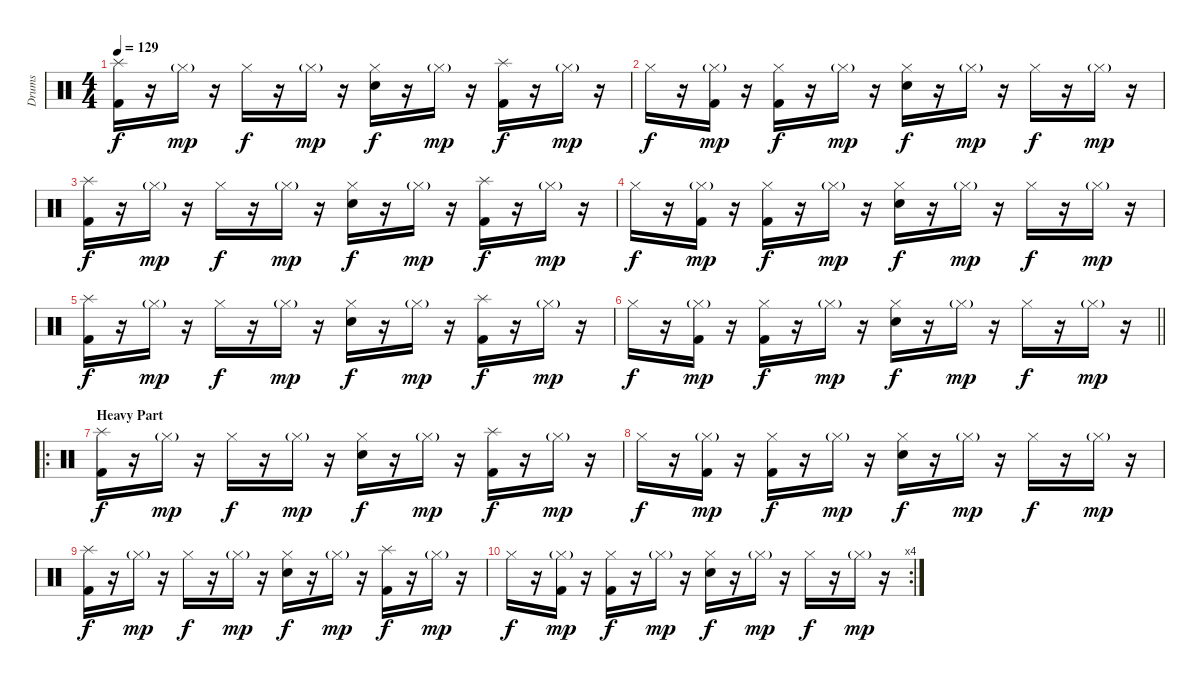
\track ("Drums" "Drums") {instrument percussion}
\staff {score}
\articulation defaults
\ts (4 4)
\tempo 129
\clef neutral
\ks c
("Splash (hit)" "Kick (hit) 2").16{dy f} r.16 "Hi-Hat (closed)"{g}.16{dy mp} r.16 "Hi-Hat (closed)".16{dy f} r.16 "Hi-Hat (closed)"{g}.16{dy mp} r.16 ("Hi-Hat (closed)" "Electric Snare (hit)").16{dy f} r.16 "Hi-Hat (closed)"{g}.16{dy mp} r.16 ("Splash (hit)" "Kick (hit) 2").16{dy f} r.16 "Hi-Hat (closed)"{g}.16{dy mp} r.16 |
"Hi-Hat (closed)".16{dy f} r.16 ("Hi-Hat (closed)"{g} "Kick (hit) 2").16{dy mp} r.16 ("Hi-Hat (closed)" "Kick (hit) 2").16{dy f} r.16 "Hi-Hat (closed)"{g}.16{dy mp} r.16 ("Hi-Hat (closed)" "Electric Snare (hit)").16{dy f} r.16 "Hi-Hat (closed)"{g}.16{dy mp} r.16 "Hi-Hat (closed)".16{dy f} r.16 "Hi-Hat (closed)"{g}.16{dy mp} r.16 |
("Splash (hit)" "Kick (hit) 2").16{dy f} r.16 "Hi-Hat (closed)"{g}.16{dy mp} r.16 "Hi-Hat (closed)".16{dy f} r.16 "Hi-Hat (closed)"{g}.16{dy mp} r.16 ("Hi-Hat (closed)" "Electric Snare (hit)").16{dy f} r.16 "Hi-Hat (closed)"{g}.16{dy mp} r.16 ("Splash (hit)" "Kick (hit) 2").16{dy f} r.16 "Hi-Hat (closed)"{g}.16{dy mp} r.16 |
"Hi-Hat (closed)".16{dy f} r.16 ("Hi-Hat (closed)"{g} "Kick (hit) 2").16{dy mp} r.16 ("Hi-Hat (closed)" "Kick (hit) 2").16{dy f} r.16 "Hi-Hat (closed)"{g}.16{dy mp} r.16 ("Hi-Hat (closed)" "Electric Snare (hit)").16{dy f} r.16 "Hi-Hat (closed)"{g}.16{dy mp} r.16 "Hi-Hat (closed)".16{dy f} r.16 "Hi-Hat (closed)"{g}.16{dy mp} r.16 |
("Splash (hit)" "Kick (hit) 2").16{dy f} r.16 "Hi-Hat (closed)"{g}.16{dy mp} r.16 "Hi-Hat (closed)".16{dy f} r.16 "Hi-Hat (closed)"{g}.16{dy mp} r.16 ("Hi-Hat (closed)" "Electric Snare (hit)").16{dy f} r.16 "Hi-Hat (closed)"{g}.16{dy mp} r.16 ("Splash (hit)" "Kick (hit) 2").16{dy f} r.16 "Hi-Hat (closed)"{g}.16{dy mp} r.16 |
\barLineRight lightlight "Hi-Hat (closed)".16{dy f}
r.16 ("Hi-Hat (closed)"{g} "Kick (hit) 2").16{dy mp} r.16 ("Hi-Hat (closed)" "Kick (hit) 2").16{dy f} r.16 "Hi-Hat (closed)"{g}.16{dy mp} r.16 ("Hi-Hat (closed)" "Electric Snare (hit)").16{dy f} r.16 "Hi-Hat (closed)"{g}.16{dy mp} r.16 "Hi-Hat (closed)".16{dy f} r.16 "Hi-Hat (closed)"{g}.16{dy mp} r.16 |
\ro
\section ("" "Heavy Part")
("Splash (hit)" "Kick (hit) 2").16{dy f} r.16 "Hi-Hat (closed)"{g}.16{dy mp} r.16 "Hi-Hat (closed)".16{dy f} r.16 "Hi-Hat (closed)"{g}.16{dy mp} r.16 ("Hi-Hat (closed)" "Electric Snare (hit)").16{dy f} r.16 "Hi-Hat (closed)"{g}.16{dy mp} r.16 ("Splash (hit)" "Kick (hit) 2").16{dy f} r.16 "Hi-Hat (closed)"{g}.16{dy mp} r.16 |
"Hi-Hat (closed)".16{dy f} r.16 ("Hi-Hat (closed)"{g} "Kick (hit) 2").16{dy mp} r.16 ("Hi-Hat (closed)" "Kick (hit) 2").16{dy f} r.16 "Hi-Hat (closed)"{g}.16{dy mp} r.16 ("Hi-Hat (closed)" "Electric Snare (hit)").16{dy f} r.16 "Hi-Hat (closed)"{g}.16{dy mp} r.16 "Hi-Hat (closed)".16{dy f} r.16 "Hi-Hat (closed)"{g}.16{dy mp} r.16 |
("Splash (hit)" "Kick (hit) 2").16{dy f} r.16 "Hi-Hat (closed)"{g}.16{dy mp} r.16 "Hi-Hat (closed)".16{dy f} r.16 "Hi-Hat (closed)"{g}.16{dy mp} r.16 ("Hi-Hat (closed)" "Electric Snare (hit)").16{dy f} r.16 "Hi-Hat (closed)"{g}.16{dy mp} r.16 ("Splash (hit)" "Kick (hit) 2").16{dy f} r.16 "Hi-Hat (closed)"{g}.16{dy mp} r.16 |
\rc 4 "Hi-Hat (closed)".16{dy f}
r.16 ("Hi-Hat (closed)"{g} "Kick (hit) 2").16{dy mp} r.16 ("Hi-Hat (closed)" "Kick (hit) 2").16{dy f} r.16 "Hi-Hat (closed)"{g}.16{dy mp} r.16 ("Hi-Hat (closed)" "Electric Snare (hit)").16{dy f} r.16 "Hi-Hat (closed)"{g}.16{dy mp} r.16 "Hi-Hat (closed)".16{dy f} r.16 "Hi-Hat (closed)"{g}.16{dy mp} r.16
